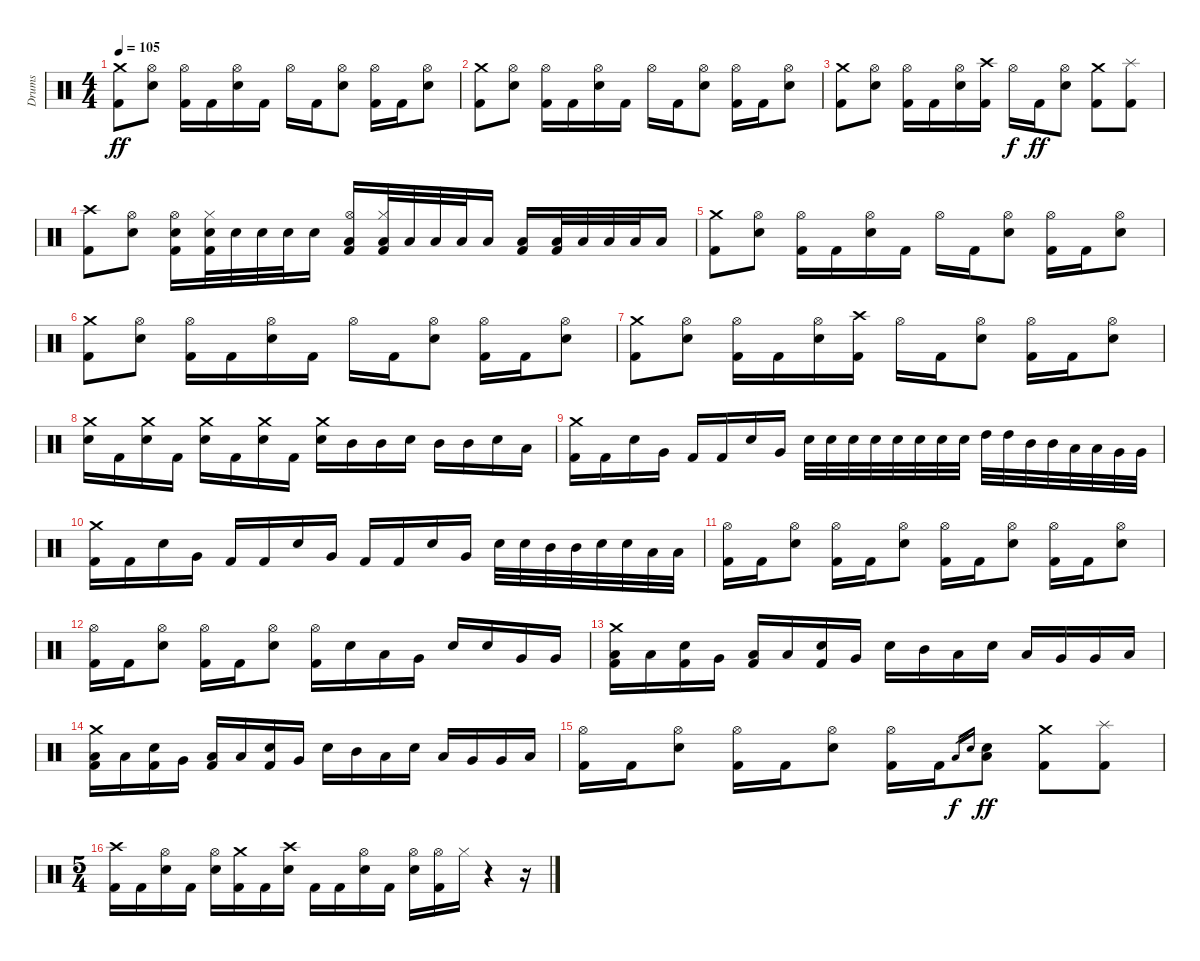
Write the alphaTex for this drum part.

\track ("Drums" "Drums") {instrument percussion}
\staff {score}
\articulation defaults
\ts (4 4)
\tempo 105
\clef neutral
\ks c
("Crash medium (hit)" "Kick (hit) 2").8{dy ff} ("Hi-Hat (open)" "Electric Snare (hit)").8 ("Hi-Hat (open)" "Kick (hit) 2").16 "Kick (hit) 2".16 ("Hi-Hat (open)" "Electric Snare (hit)").16 "Kick (hit) 2".16 "Hi-Hat (open)".16 "Kick (hit) 2".16 ("Hi-Hat (open)" "Electric Snare (hit)").8 ("Hi-Hat (open)" "Kick (hit) 2").16 "Kick (hit) 2".16 ("Hi-Hat (open)" "Electric Snare (hit)").8 |
("Crash medium (hit)" "Kick (hit) 2").8 ("Hi-Hat (open)" "Electric Snare (hit)").8 ("Hi-Hat (open)" "Kick (hit) 2").16 "Kick (hit) 2".16 ("Hi-Hat (open)" "Electric Snare (hit)").16 "Kick (hit) 2".16 "Hi-Hat (open)".16 "Kick (hit) 2".16 ("Hi-Hat (open)" "Electric Snare (hit)").8 ("Hi-Hat (open)" "Kick (hit) 2").16 "Kick (hit) 2".16 ("Hi-Hat (open)" "Electric Snare (hit)").8 |
("Crash medium (hit)" "Kick (hit) 2").8 ("Hi-Hat (open)" "Electric Snare (hit)").8 ("Hi-Hat (open)" "Kick (hit) 2").16 "Kick (hit) 2".16 ("Hi-Hat (open)" "Electric Snare (hit)").16 ("Crash high (hit)" "Kick (hit) 2").16 "Hi-Hat (open)".16{dy f} "Kick (hit) 2".16{dy ff} ("Hi-Hat (open)" "Electric Snare (hit)").8 ("Crash medium (hit)" "Kick (hit) 2").8 ("Splash (hit)" "Kick (hit) 2").8 |
("Crash high (hit)" "Kick (hit) 2").8 ("Hi-Hat (open)" "Electric Snare (hit)").8 ("Hi-Hat (open)" "Electric Snare (hit)" "Kick (hit) 2").16 ("Hi-Hat (closed)" "Electric Snare (hit)" "Kick (hit) 2").32 "Electric Snare (hit)".32 "Electric Snare (hit)".32 "Electric Snare (hit)".32 "Electric Snare (hit)".16 ("Hi-Hat (open)" "Low Tom (hit)" "Kick (hit) 2").16 ("Hi-Hat (closed)" "Low Tom (hit)" "Kick (hit) 2").32 "Low Tom (hit)".32 "Low Tom (hit)".32 "Low Tom (hit)".32 "Low Tom (hit)".16 ("Low Floor Tom (hit)" "Kick (hit) 2").16 ("Low Floor Tom (hit)" "Kick (hit) 2").32 "Low Floor Tom (hit)".32 "Low Floor Tom (hit)".32 "Low Floor Tom (hit)".32 "Low Floor Tom (hit)".16 |
("Crash medium (hit)" "Kick (hit) 2").8 ("Hi-Hat (open)" "Electric Snare (hit)").8 ("Hi-Hat (open)" "Kick (hit) 2").16 "Kick (hit) 2".16 ("Hi-Hat (open)" "Electric Snare (hit)").16 "Kick (hit) 2".16 "Hi-Hat (open)".16 "Kick (hit) 2".16 ("Hi-Hat (open)" "Electric Snare (hit)").8 ("Hi-Hat (open)" "Kick (hit) 2").16 "Kick (hit) 2".16 ("Hi-Hat (open)" "Electric Snare (hit)").8 |
("Crash medium (hit)" "Kick (hit) 2").8 ("Hi-Hat (open)" "Electric Snare (hit)").8 ("Hi-Hat (open)" "Kick (hit) 2").16 "Kick (hit) 2".16 ("Hi-Hat (open)" "Electric Snare (hit)").16 "Kick (hit) 2".16 "Hi-Hat (open)".16 "Kick (hit) 2".16 ("Hi-Hat (open)" "Electric Snare (hit)").8 ("Hi-Hat (open)" "Kick (hit) 2").16 "Kick (hit) 2".16 ("Hi-Hat (open)" "Electric Snare (hit)").8 |
("Crash medium (hit)" "Kick (hit) 2").8 ("Hi-Hat (open)" "Electric Snare (hit)").8 ("Hi-Hat (open)" "Kick (hit) 2").16 "Kick (hit) 2".16 ("Hi-Hat (open)" "Electric Snare (hit)").16 ("Crash high (hit)" "Kick (hit) 2").16 "Hi-Hat (open)".16 "Kick (hit) 2".16 ("Hi-Hat (open)" "Electric Snare (hit)").8 ("Hi-Hat (open)" "Kick (hit) 2").16 "Kick (hit) 2".16 ("Hi-Hat (open)" "Electric Snare (hit)").8 |
("Crash medium (hit)" "Electric Snare (hit)").16 "Kick (hit) 2".16 ("Crash medium (hit)" "Electric Snare (hit)").16 "Kick (hit) 2".16 ("Crash medium (hit)" "Electric Snare (hit)").16 "Kick (hit) 2".16 ("Crash medium (hit)" "Electric Snare (hit)").16 "Kick (hit) 2".16 ("Crash medium (hit)" "Electric Snare (hit)").16 "Mid Tom (hit)".16 "Mid Tom (hit)".16 "Electric Snare (hit)".16 "Mid Tom (hit)".16 "Mid Tom (hit)".16 "Electric Snare (hit)".16 "Low Tom (hit)".16 |
("Crash medium (hit)" "Kick (hit) 2").16 "Kick (hit) 2".16 "Electric Snare (hit)".16 "Very Low Tom (hit)".16 "Kick (hit) 2".16 "Kick (hit) 2".16 "Electric Snare (hit)".16 "Very Low Tom (hit)".16 "Electric Snare (hit)".32 "Electric Snare (hit)".32 "Electric Snare (hit)".32 "Electric Snare (hit)".32 "Electric Snare (hit)".32 "Electric Snare (hit)".32 "Electric Snare (hit)".32 "Electric Snare (hit)".32 "High Tom (hit)".32 "High Tom (hit)".32 "Mid Tom (hit)".32 "Mid Tom (hit)".32 "Low Tom (hit)".32 "Low Tom (hit)".32 "Very Low Tom (hit)".32 "Very Low Tom (hit)".32 |
("Crash medium (hit)" "Kick (hit) 2").16 "Kick (hit) 2".16 "Electric Snare (hit)".16 "Very Low Tom (hit)".16 "Kick (hit) 2".16 "Kick (hit) 2".16 "Electric Snare (hit)".16 "Very Low Tom (hit)".16 "Kick (hit) 2".16 "Kick (hit) 2".16 "Electric Snare (hit)".16 "Very Low Tom (hit)".16 "Electric Snare (hit)".32 "Electric Snare (hit)".32 "Mid Tom (hit)".32 "Mid Tom (hit)".32 "Electric Snare (hit)".32 "Electric Snare (hit)".32 "Low Tom (hit)".32 "Low Tom (hit)".32 |
("Hi-Hat (open)" "Kick (hit) 2").16 "Kick (hit) 2".16 ("Hi-Hat (open)" "Electric Snare (hit)").8 ("Hi-Hat (open)" "Kick (hit) 2").16 "Kick (hit) 2".16 ("Hi-Hat (open)" "Electric Snare (hit)").8 ("Hi-Hat (open)" "Kick (hit) 2").16 "Kick (hit) 2".16 ("Hi-Hat (open)" "Electric Snare (hit)").8 ("Hi-Hat (open)" "Kick (hit) 2").16 "Kick (hit) 2".16 ("Hi-Hat (open)" "Electric Snare (hit)").8 |
("Hi-Hat (open)" "Kick (hit) 2").16 "Kick (hit) 2".16 ("Hi-Hat (open)" "Electric Snare (hit)").8 ("Hi-Hat (open)" "Kick (hit) 2").16 "Kick (hit) 2".16 ("Hi-Hat (open)" "Electric Snare (hit)").8 ("Hi-Hat (open)" "Kick (hit) 2").16 "Electric Snare (hit)".16 "Low Tom (hit)".16 "Very Low Tom (hit)".16 "Electric Snare (hit)".16 "Electric Snare (hit)".16 "Very Low Tom (hit)".16 "Very Low Tom (hit)".16 |
("Crash medium (hit)" "Low Tom (hit)" "Kick (hit) 2").16 "Low Tom (hit)".16 ("Electric Snare (hit)" "Kick (hit) 2").16 "Very Low Tom (hit)".16 ("Low Tom (hit)" "Kick (hit) 2").16 "Low Tom (hit)".16 ("Electric Snare (hit)" "Kick (hit) 2").16 "Very Low Tom (hit)".16 "Electric Snare (hit)".16 "Mid Tom (hit)".16 "Low Tom (hit)".16 "Electric Snare (hit)".16 "Low Tom (hit)".16 "Very Low Tom (hit)".16 "Very Low Tom (hit)".16 "Low Floor Tom (hit)".16 |
("Crash medium (hit)" "Low Tom (hit)" "Kick (hit) 2").16 "Low Tom (hit)".16 ("Electric Snare (hit)" "Kick (hit) 2").16 "Very Low Tom (hit)".16 ("Low Tom (hit)" "Kick (hit) 2").16 "Low Tom (hit)".16 ("Electric Snare (hit)" "Kick (hit) 2").16 "Very Low Tom (hit)".16 "Electric Snare (hit)".16 "Mid Tom (hit)".16 "Low Tom (hit)".16 "Electric Snare (hit)".16 "Low Tom (hit)".16 "Very Low Tom (hit)".16 "Very Low Tom (hit)".16 "Low Floor Tom (hit)".16 |
("Hi-Hat (open)" "Kick (hit) 2").16 "Kick (hit) 2".16 ("Hi-Hat (open)" "Electric Snare (hit)").8 ("Hi-Hat (open)" "Kick (hit) 2").16 "Kick (hit) 2".16 ("Hi-Hat (open)" "Electric Snare (hit)").8 ("Hi-Hat (open)" "Kick (hit) 2").16 "Kick (hit) 2".16 "Low Tom (hit)".16{gr dy f} "Electric Snare (hit)".16{gr} ("Low Tom (hit)" "Electric Snare (hit)").8{dy ff} ("Crash medium (hit)" "Kick (hit) 2").8 ("Splash (hit)" "Kick (hit) 2").8 |
\ts (5 4)
("Crash high (hit)" "Kick (hit) 2").16 "Kick (hit) 2".16 ("Hi-Hat (open)" "Electric Snare (hit)").16 "Kick (hit) 2".16 ("Hi-Hat (open)" "Electric Snare (hit)").16 ("Crash medium (hit)" "Kick (hit) 2").16 "Kick (hit) 2".16 ("Crash high (hit)" "Electric Snare (hit)").16 "Kick (hit) 2".16 "Kick (hit) 2".16 ("Hi-Hat (open)" "Electric Snare (hit)").16 "Kick (hit) 2".16 ("Hi-Hat (open)" "Electric Snare (hit)").16 ("Hi-Hat (open)" "Kick (hit) 2").16 "Hi-Hat (closed)".16 r.4 r.16
